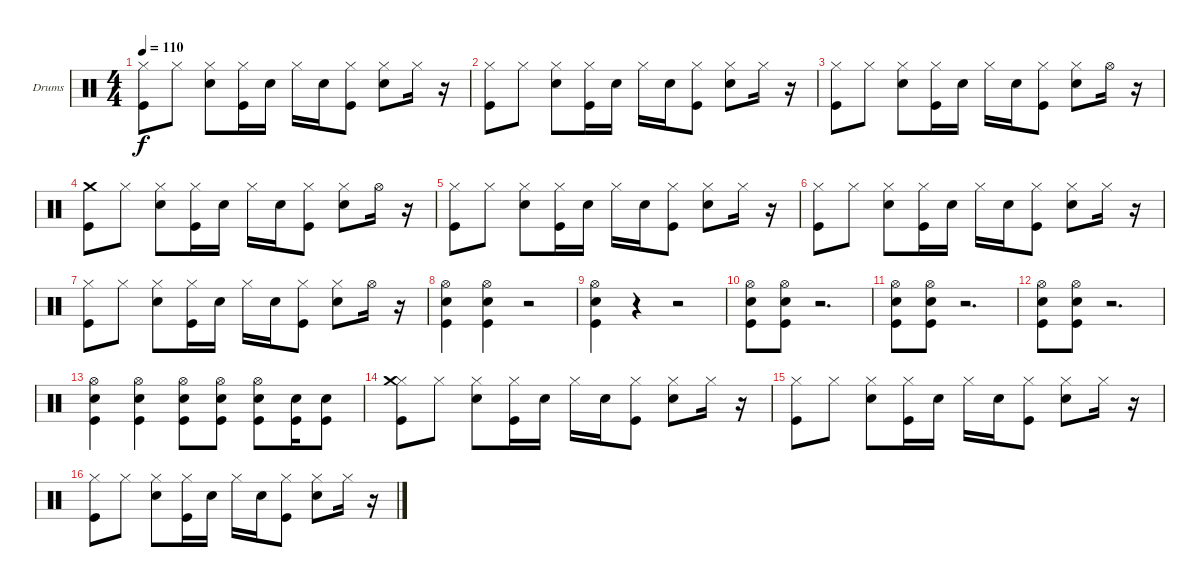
\bracketExtendMode groupsimilarinstruments
\firstSystemTrackNameOrientation horizontal
\otherSystemsTrackNameOrientation horizontal
\track ("Drumkit" "Drums") {instrument percussion}
\staff {score}
\articulation defaults
\ts (4 4)
\tempo 110
\clef neutral
\ks c
("Hi-Hat (closed)" "Kick (hit)").8{dy f} "Hi-Hat (closed)".8 ("Hi-Hat (closed)" "Snare (hit) 2").8 ("Hi-Hat (closed)" "Kick (hit)").16 "Snare (hit) 2".16 "Hi-Hat (closed)".16 "Snare (hit) 2".16 ("Hi-Hat (closed)" "Kick (hit)").8 ("Hi-Hat (closed)" "Snare (hit) 2").8 "Hi-Hat (closed)".16 r.16 |
("Hi-Hat (closed)" "Kick (hit)").8 "Hi-Hat (closed)".8 ("Hi-Hat (closed)" "Snare (hit) 2").8 ("Hi-Hat (closed)" "Kick (hit)").16 "Snare (hit) 2".16 "Hi-Hat (closed)".16 "Snare (hit) 2".16 ("Hi-Hat (closed)" "Kick (hit)").8 ("Hi-Hat (closed)" "Snare (hit) 2").8 "Hi-Hat (closed)".16 r.16 |
("Hi-Hat (closed)" "Kick (hit)").8 "Hi-Hat (closed)".8 ("Hi-Hat (closed)" "Snare (hit) 2").8 ("Hi-Hat (closed)" "Kick (hit)").16 "Snare (hit) 2".16 "Hi-Hat (closed)".16 "Snare (hit) 2".16 ("Hi-Hat (closed)" "Kick (hit)").8 ("Hi-Hat (closed)" "Snare (hit) 2").8 "Hi-Hat (open)".16 r.16 |
("Crash medium (hit)" "Kick (hit)").8 "Hi-Hat (closed)".8 ("Hi-Hat (closed)" "Snare (hit) 2").8 ("Hi-Hat (closed)" "Kick (hit)").16 "Snare (hit) 2".16 "Hi-Hat (closed)".16 "Snare (hit) 2".16 ("Hi-Hat (closed)" "Kick (hit)").8 ("Hi-Hat (closed)" "Snare (hit) 2").8 "Hi-Hat (open)".16 r.16 |
("Hi-Hat (closed)" "Kick (hit)").8 "Hi-Hat (closed)".8 ("Hi-Hat (closed)" "Snare (hit) 2").8 ("Hi-Hat (closed)" "Kick (hit)").16 "Snare (hit) 2".16 "Hi-Hat (closed)".16 "Snare (hit) 2".16 ("Hi-Hat (closed)" "Kick (hit)").8 ("Hi-Hat (closed)" "Snare (hit) 2").8 "Hi-Hat (closed)".16 r.16 |
("Hi-Hat (closed)" "Kick (hit)").8 "Hi-Hat (closed)".8 ("Hi-Hat (closed)" "Snare (hit) 2").8 ("Hi-Hat (closed)" "Kick (hit)").16 "Snare (hit) 2".16 "Hi-Hat (closed)".16 "Snare (hit) 2".16 ("Hi-Hat (closed)" "Kick (hit)").8 ("Hi-Hat (closed)" "Snare (hit) 2").8 "Hi-Hat (closed)".16 r.16 |
("Hi-Hat (closed)" "Kick (hit)").8 "Hi-Hat (closed)".8 ("Hi-Hat (closed)" "Snare (hit) 2").8 ("Hi-Hat (closed)" "Kick (hit)").16 "Snare (hit) 2".16 "Hi-Hat (closed)".16 "Snare (hit) 2".16 ("Hi-Hat (closed)" "Kick (hit)").8 ("Hi-Hat (closed)" "Snare (hit) 2").8 "Hi-Hat (open)".16 r.16 |
("Kick (hit)" "Snare (hit) 2" "Hi-Hat (open)").4 ("Kick (hit)" "Snare (hit) 2" "Hi-Hat (open)").4 r.2 |
("Kick (hit)" "Snare (hit) 2" "Hi-Hat (open)").4 r.4 r.2 |
("Kick (hit)" "Snare (hit) 2" "Hi-Hat (open)").8 ("Kick (hit)" "Snare (hit) 2" "Hi-Hat (open)").8 r.2{d} |
("Kick (hit)" "Snare (hit) 2" "Hi-Hat (open)").8 ("Kick (hit)" "Snare (hit) 2" "Hi-Hat (open)").8 r.2{d} |
("Kick (hit)" "Snare (hit) 2" "Hi-Hat (open)").8 ("Kick (hit)" "Snare (hit) 2" "Hi-Hat (open)").8 r.2{d} |
("Kick (hit)" "Snare (hit) 2" "Hi-Hat (open)").4 ("Kick (hit)" "Snare (hit) 2" "Hi-Hat (open)").4 ("Kick (hit)" "Snare (hit) 2" "Hi-Hat (open)").8 ("Kick (hit)" "Snare (hit) 2" "Hi-Hat (open)").8 ("Kick (hit)" "Snare (hit) 2" "Hi-Hat (open)").8 ("Kick (hit)" "Snare (hit) 2").16 ("Kick (hit)" "Snare (hit) 2").8 |
("Hi-Hat (closed)" "Crash medium (hit)" "Kick (hit)").8 "Hi-Hat (closed)".8 ("Hi-Hat (closed)" "Snare (hit) 2").8 ("Hi-Hat (closed)" "Kick (hit)").16 "Snare (hit) 2".16 "Hi-Hat (closed)".16 "Snare (hit) 2".16 ("Hi-Hat (closed)" "Kick (hit)").8 ("Hi-Hat (closed)" "Snare (hit) 2").8 "Hi-Hat (closed)".16 r.16 |
("Hi-Hat (closed)" "Kick (hit)").8 "Hi-Hat (closed)".8 ("Hi-Hat (closed)" "Snare (hit) 2").8 ("Hi-Hat (closed)" "Kick (hit)").16 "Snare (hit) 2".16 "Hi-Hat (closed)".16 "Snare (hit) 2".16 ("Hi-Hat (closed)" "Kick (hit)").8 ("Hi-Hat (closed)" "Snare (hit) 2").8 "Hi-Hat (closed)".16 r.16 |
("Hi-Hat (closed)" "Kick (hit)").8 "Hi-Hat (closed)".8 ("Hi-Hat (closed)" "Snare (hit) 2").8 ("Hi-Hat (closed)" "Kick (hit)").16 "Snare (hit) 2".16 "Hi-Hat (closed)".16 "Snare (hit) 2".16 ("Hi-Hat (closed)" "Kick (hit)").8 ("Hi-Hat (closed)" "Snare (hit) 2").8 "Hi-Hat (closed)".16 r.16
